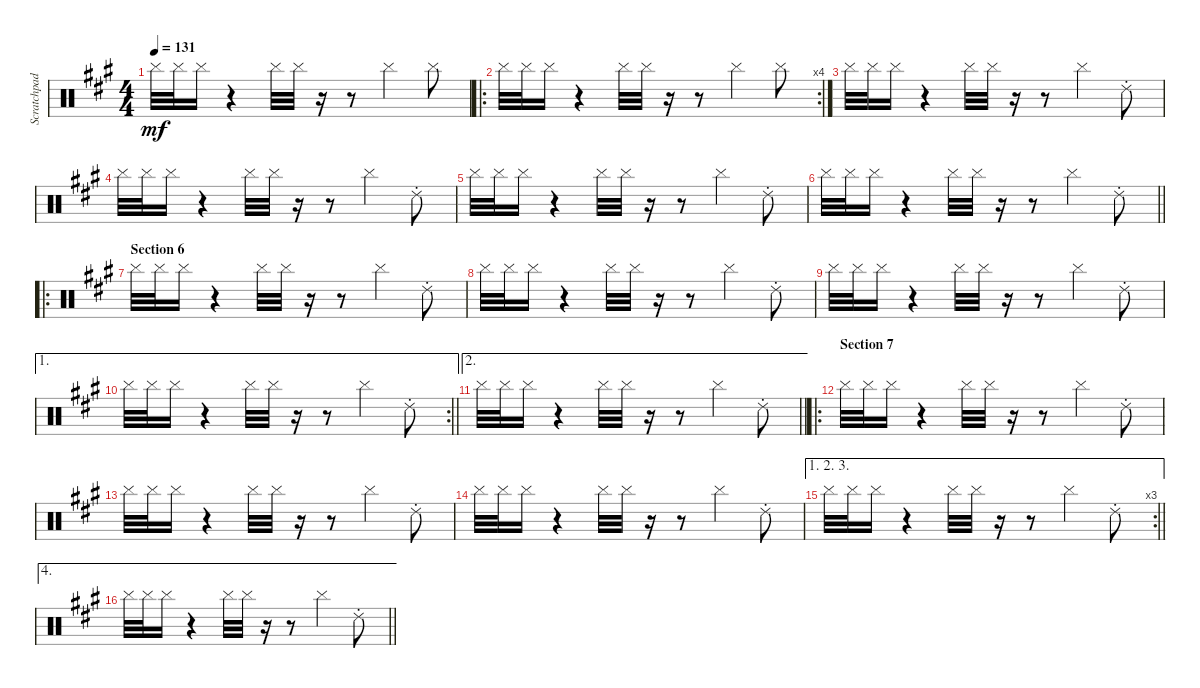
\track ("Scratchpad" "Scratchpad") {instrument percussion bank 2}
\staff {score}
\articulation defaults
\ts (4 4)
\tempo 131
\clef neutral
\ks f#minor "Cymbal (hit)".32{dy mf} "Cymbal (hit)".32 "Cymbal (hit)".16
r.4 "Cymbal (hit)".32 "Cymbal (hit)".32 r.16 r.8 "Cymbal (hit)".4 "Cymbal (hit)".8 |
\ro
\rc 4 "Cymbal (hit)".32 "Cymbal (hit)".32 "Cymbal (hit)".16
r.4 "Cymbal (hit)".32 "Cymbal (hit)".32 r.16 r.8 "Cymbal (hit)".4 "Cymbal (hit)".8 |
"Cymbal (hit)".32 "Cymbal (hit)".32 "Cymbal (hit)".16 r.4 "Cymbal (hit)".32 "Cymbal (hit)".32 r.16 r.8 "Cymbal (hit)".4 "Ride (choke) 2".8 |
"Cymbal (hit)".32 "Cymbal (hit)".32 "Cymbal (hit)".16 r.4 "Cymbal (hit)".32 "Cymbal (hit)".32 r.16 r.8 "Cymbal (hit)".4 "Ride (choke) 2".8 |
"Cymbal (hit)".32 "Cymbal (hit)".32 "Cymbal (hit)".16 r.4 "Cymbal (hit)".32 "Cymbal (hit)".32 r.16 r.8 "Cymbal (hit)".4 "Ride (choke) 2".8 |
\barLineRight lightlight "Cymbal (hit)".32 "Cymbal (hit)".32 "Cymbal (hit)".16
r.4 "Cymbal (hit)".32 "Cymbal (hit)".32 r.16 r.8 "Cymbal (hit)".4 "Ride (choke) 2".8 |
\ro
\section ("" "Section 6")
"Cymbal (hit)".32 "Cymbal (hit)".32 "Cymbal (hit)".16 r.4 "Cymbal (hit)".32 "Cymbal (hit)".32 r.16 r.8 "Cymbal (hit)".4 "Ride (choke) 2".8 |
"Cymbal (hit)".32 "Cymbal (hit)".32 "Cymbal (hit)".16 r.4 "Cymbal (hit)".32 "Cymbal (hit)".32 r.16 r.8 "Cymbal (hit)".4 "Ride (choke) 2".8 |
"Cymbal (hit)".32 "Cymbal (hit)".32 "Cymbal (hit)".16 r.4 "Cymbal (hit)".32 "Cymbal (hit)".32 r.16 r.8 "Cymbal (hit)".4 "Ride (choke) 2".8 |
\ae 1
\rc 2
\barLineRight lightlight "Cymbal (hit)".32 "Cymbal (hit)".32 "Cymbal (hit)".16
r.4 "Cymbal (hit)".32 "Cymbal (hit)".32 r.16 r.8 "Cymbal (hit)".4 "Ride (choke) 2".8 |
\ae 2
\barLineRight lightlight "Cymbal (hit)".32 "Cymbal (hit)".32 "Cymbal (hit)".16
r.4 "Cymbal (hit)".32 "Cymbal (hit)".32 r.16 r.8 "Cymbal (hit)".4 "Ride (choke) 2".8 |
\ro
\section ("" "Section 7")
"Cymbal (hit)".32 "Cymbal (hit)".32 "Cymbal (hit)".16 r.4 "Cymbal (hit)".32 "Cymbal (hit)".32 r.16 r.8 "Cymbal (hit)".4 "Ride (choke) 2".8 |
"Cymbal (hit)".32 "Cymbal (hit)".32 "Cymbal (hit)".16 r.4 "Cymbal (hit)".32 "Cymbal (hit)".32 r.16 r.8 "Cymbal (hit)".4 "Ride (choke) 2".8 |
"Cymbal (hit)".32 "Cymbal (hit)".32 "Cymbal (hit)".16 r.4 "Cymbal (hit)".32 "Cymbal (hit)".32 r.16 r.8 "Cymbal (hit)".4 "Ride (choke) 2".8 |
\ae (1 2 3)
\rc 3
\barLineRight lightlight "Cymbal (hit)".32 "Cymbal (hit)".32 "Cymbal (hit)".16
r.4 "Cymbal (hit)".32 "Cymbal (hit)".32 r.16 r.8 "Cymbal (hit)".4 "Ride (choke) 2".8 |
\ae 4
\barLineRight lightlight "Cymbal (hit)".32 "Cymbal (hit)".32 "Cymbal (hit)".16
r.4 "Cymbal (hit)".32 "Cymbal (hit)".32 r.16 r.8 "Cymbal (hit)".4 "Ride (choke) 2".8
